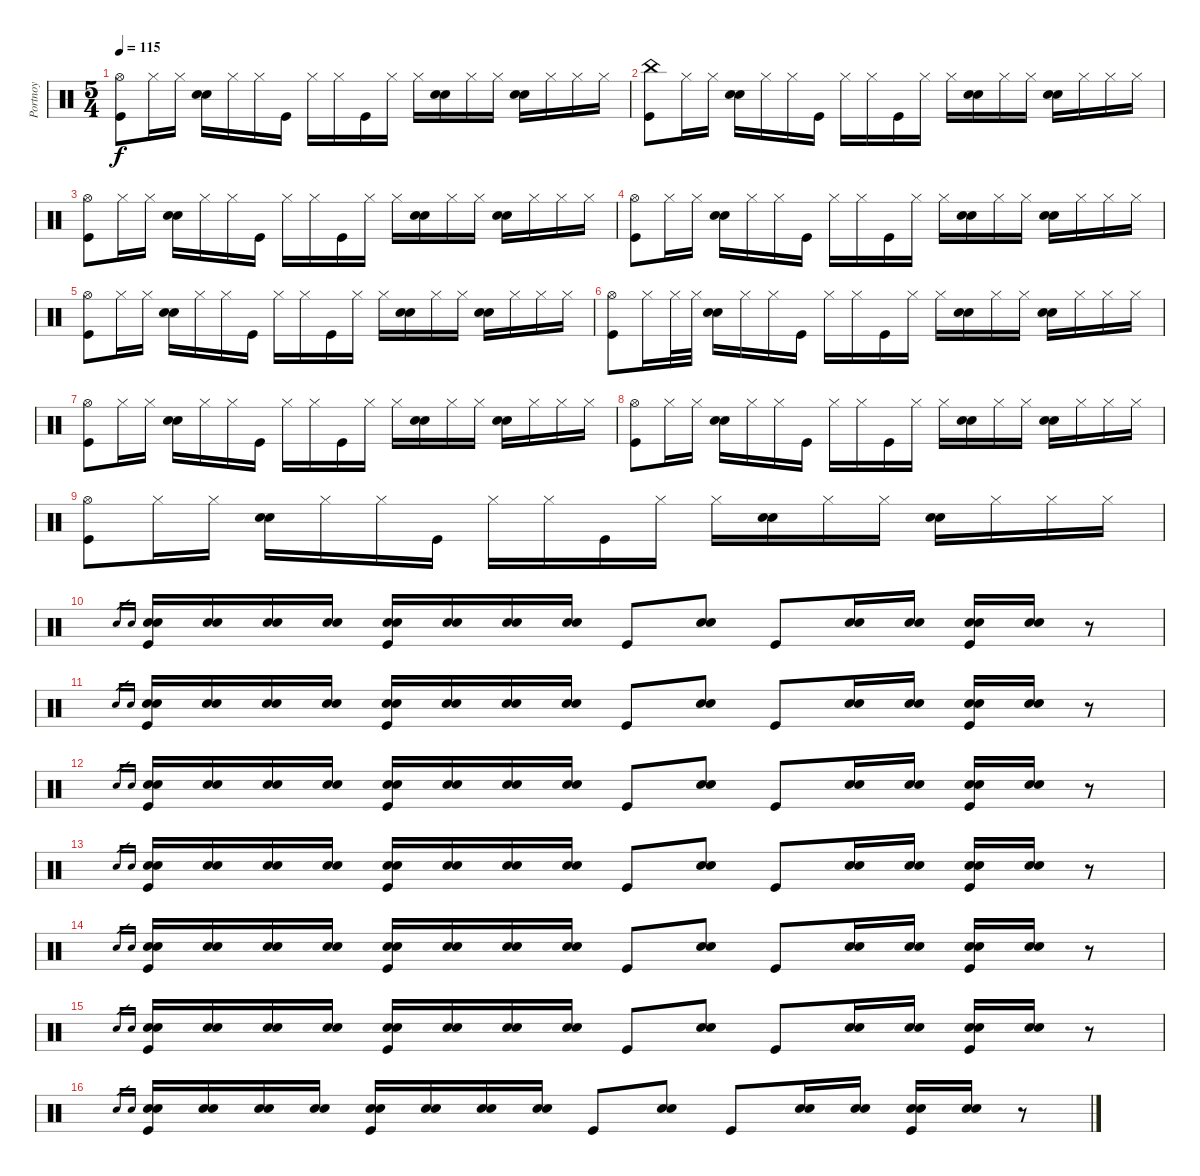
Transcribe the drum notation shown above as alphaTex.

\track ("Portnoy" "Portnoy") {instrument percussion}
\staff {score}
\articulation defaults
\ts (5 4)
\tempo 115
\clef neutral
\ks c
("Hi-Hat (open)" "Kick (hit)").8{dy f} "Hi-Hat (closed)".16 "Hi-Hat (closed)".16 ("Snare (hit) 2" "Electric Snare (hit)").16 "Hi-Hat (closed)".16 "Hi-Hat (closed)".16 "Kick (hit)".16 "Hi-Hat (closed)".16 "Hi-Hat (closed)".16 "Kick (hit)".16 "Hi-Hat (closed)".16 "Hi-Hat (closed)".16 ("Snare (hit) 2" "Electric Snare (hit)").16 "Hi-Hat (closed)".16 "Hi-Hat (closed)".16 ("Snare (hit) 2" "Electric Snare (hit)").16 "Hi-Hat (closed)".16 "Hi-Hat (closed)".16 "Hi-Hat (closed)".16 |
("China (hit)" "Kick (hit)").8 "Hi-Hat (closed)".16 "Hi-Hat (closed)".16 ("Snare (hit) 2" "Electric Snare (hit)").16 "Hi-Hat (closed)".16 "Hi-Hat (closed)".16 "Kick (hit)".16 "Hi-Hat (closed)".16 "Hi-Hat (closed)".16 "Kick (hit)".16 "Hi-Hat (closed)".16 "Hi-Hat (closed)".16 ("Snare (hit) 2" "Electric Snare (hit)").16 "Hi-Hat (closed)".16 "Hi-Hat (closed)".16 ("Snare (hit) 2" "Electric Snare (hit)").16 "Hi-Hat (closed)".16 "Hi-Hat (closed)".16 "Hi-Hat (closed)".16 |
("Hi-Hat (open)" "Kick (hit)").8 "Hi-Hat (closed)".16 "Hi-Hat (closed)".16 ("Snare (hit) 2" "Electric Snare (hit)").16 "Hi-Hat (closed)".16 "Hi-Hat (closed)".16 "Kick (hit)".16 "Hi-Hat (closed)".16 "Hi-Hat (closed)".16 "Kick (hit)".16 "Hi-Hat (closed)".16 "Hi-Hat (closed)".16 ("Snare (hit) 2" "Electric Snare (hit)").16 "Hi-Hat (closed)".16 "Hi-Hat (closed)".16 ("Snare (hit) 2" "Electric Snare (hit)").16 "Hi-Hat (closed)".16 "Hi-Hat (closed)".16 "Hi-Hat (closed)".16 |
("Hi-Hat (open)" "Kick (hit)").8 "Hi-Hat (closed)".16 "Hi-Hat (closed)".16 ("Snare (hit) 2" "Electric Snare (hit)").16 "Hi-Hat (closed)".16 "Hi-Hat (closed)".16 "Kick (hit)".16 "Hi-Hat (closed)".16 "Hi-Hat (closed)".16 "Kick (hit)".16 "Hi-Hat (closed)".16 "Hi-Hat (closed)".16 ("Snare (hit) 2" "Electric Snare (hit)").16 "Hi-Hat (closed)".16 "Hi-Hat (closed)".16 ("Snare (hit) 2" "Electric Snare (hit)").16 "Hi-Hat (closed)".16 "Hi-Hat (closed)".16 "Hi-Hat (closed)".16 |
("Hi-Hat (open)" "Kick (hit)").8 "Hi-Hat (closed)".16 "Hi-Hat (closed)".16 ("Snare (hit) 2" "Electric Snare (hit)").16 "Hi-Hat (closed)".16 "Hi-Hat (closed)".16 "Kick (hit)".16 "Hi-Hat (closed)".16 "Hi-Hat (closed)".16 "Kick (hit)".16 "Hi-Hat (closed)".16 "Hi-Hat (closed)".16 ("Snare (hit) 2" "Electric Snare (hit)").16 "Hi-Hat (closed)".16 "Hi-Hat (closed)".16 ("Snare (hit) 2" "Electric Snare (hit)").16 "Hi-Hat (closed)".16 "Hi-Hat (closed)".16 "Hi-Hat (closed)".16 |
("Hi-Hat (open)" "Kick (hit)").8 "Hi-Hat (closed)".16 "Hi-Hat (closed)".32 "Hi-Hat (closed)".32 ("Snare (hit) 2" "Electric Snare (hit)").16 "Hi-Hat (closed)".16 "Hi-Hat (closed)".16 "Kick (hit)".16 "Hi-Hat (closed)".16 "Hi-Hat (closed)".16 "Kick (hit)".16 "Hi-Hat (closed)".16 "Hi-Hat (closed)".16 ("Snare (hit) 2" "Electric Snare (hit)").16 "Hi-Hat (closed)".16 "Hi-Hat (closed)".16 ("Snare (hit) 2" "Electric Snare (hit)").16 "Hi-Hat (closed)".16 "Hi-Hat (closed)".16 "Hi-Hat (closed)".16 |
("Hi-Hat (open)" "Kick (hit)").8 "Hi-Hat (closed)".16 "Hi-Hat (closed)".16 ("Snare (hit) 2" "Electric Snare (hit)").16 "Hi-Hat (closed)".16 "Hi-Hat (closed)".16 "Kick (hit)".16 "Hi-Hat (closed)".16 "Hi-Hat (closed)".16 "Kick (hit)".16 "Hi-Hat (closed)".16 "Hi-Hat (closed)".16 ("Snare (hit) 2" "Electric Snare (hit)").16 "Hi-Hat (closed)".16 "Hi-Hat (closed)".16 ("Snare (hit) 2" "Electric Snare (hit)").16 "Hi-Hat (closed)".16 "Hi-Hat (closed)".16 "Hi-Hat (closed)".16 |
("Hi-Hat (open)" "Kick (hit)").8 "Hi-Hat (closed)".16 "Hi-Hat (closed)".16 ("Snare (hit) 2" "Electric Snare (hit)").16 "Hi-Hat (closed)".16 "Hi-Hat (closed)".16 "Kick (hit)".16 "Hi-Hat (closed)".16 "Hi-Hat (closed)".16 "Kick (hit)".16 "Hi-Hat (closed)".16 "Hi-Hat (closed)".16 ("Snare (hit) 2" "Electric Snare (hit)").16 "Hi-Hat (closed)".16 "Hi-Hat (closed)".16 ("Snare (hit) 2" "Electric Snare (hit)").16 "Hi-Hat (closed)".16 "Hi-Hat (closed)".16 "Hi-Hat (closed)".16 |
("Hi-Hat (open)" "Kick (hit)").8 "Hi-Hat (closed)".16 "Hi-Hat (closed)".16 ("Snare (hit) 2" "Electric Snare (hit)").16 "Hi-Hat (closed)".16 "Hi-Hat (closed)".16 "Kick (hit)".16 "Hi-Hat (closed)".16 "Hi-Hat (closed)".16 "Kick (hit)".16 "Hi-Hat (closed)".16 "Hi-Hat (closed)".16 ("Snare (hit) 2" "Electric Snare (hit)").16 "Hi-Hat (closed)".16 "Hi-Hat (closed)".16 ("Snare (hit) 2" "Electric Snare (hit)").16 "Hi-Hat (closed)".16 "Hi-Hat (closed)".16 "Hi-Hat (closed)".16 |
"Snare (hit) 2".16{gr} "Electric Snare (hit)".16{gr} ("Snare (hit) 2" "Electric Snare (hit)" "Kick (hit)").16 ("Snare (hit) 2" "Electric Snare (hit)").16 ("Snare (hit) 2" "Electric Snare (hit)").16 ("Snare (hit) 2" "Electric Snare (hit)").16 ("Snare (hit) 2" "Electric Snare (hit)" "Kick (hit)").16 ("Snare (hit) 2" "Electric Snare (hit)").16 ("Snare (hit) 2" "Electric Snare (hit)").16 ("Snare (hit) 2" "Electric Snare (hit)").16 "Kick (hit)".8 ("Snare (hit) 2" "Electric Snare (hit)").8 "Kick (hit)".8 ("Snare (hit) 2" "Electric Snare (hit)").16 ("Snare (hit) 2" "Electric Snare (hit)").16 ("Snare (hit) 2" "Electric Snare (hit)" "Kick (hit)").16 ("Snare (hit) 2" "Electric Snare (hit)").16 r.8 |
"Snare (hit) 2".16{gr} "Electric Snare (hit)".16{gr} ("Snare (hit) 2" "Electric Snare (hit)" "Kick (hit)").16 ("Snare (hit) 2" "Electric Snare (hit)").16 ("Snare (hit) 2" "Electric Snare (hit)").16 ("Snare (hit) 2" "Electric Snare (hit)").16 ("Snare (hit) 2" "Electric Snare (hit)" "Kick (hit)").16 ("Snare (hit) 2" "Electric Snare (hit)").16 ("Snare (hit) 2" "Electric Snare (hit)").16 ("Snare (hit) 2" "Electric Snare (hit)").16 "Kick (hit)".8 ("Snare (hit) 2" "Electric Snare (hit)").8 "Kick (hit)".8 ("Snare (hit) 2" "Electric Snare (hit)").16 ("Snare (hit) 2" "Electric Snare (hit)").16 ("Snare (hit) 2" "Electric Snare (hit)" "Kick (hit)").16 ("Snare (hit) 2" "Electric Snare (hit)").16 r.8 |
"Snare (hit) 2".16{gr} "Electric Snare (hit)".16{gr} ("Snare (hit) 2" "Electric Snare (hit)" "Kick (hit)").16 ("Snare (hit) 2" "Electric Snare (hit)").16 ("Snare (hit) 2" "Electric Snare (hit)").16 ("Snare (hit) 2" "Electric Snare (hit)").16 ("Snare (hit) 2" "Electric Snare (hit)" "Kick (hit)").16 ("Snare (hit) 2" "Electric Snare (hit)").16 ("Snare (hit) 2" "Electric Snare (hit)").16 ("Snare (hit) 2" "Electric Snare (hit)").16 "Kick (hit)".8 ("Snare (hit) 2" "Electric Snare (hit)").8 "Kick (hit)".8 ("Snare (hit) 2" "Electric Snare (hit)").16 ("Snare (hit) 2" "Electric Snare (hit)").16 ("Snare (hit) 2" "Electric Snare (hit)" "Kick (hit)").16 ("Snare (hit) 2" "Electric Snare (hit)").16 r.8 |
"Snare (hit) 2".16{gr} "Electric Snare (hit)".16{gr} ("Snare (hit) 2" "Electric Snare (hit)" "Kick (hit)").16 ("Snare (hit) 2" "Electric Snare (hit)").16 ("Snare (hit) 2" "Electric Snare (hit)").16 ("Snare (hit) 2" "Electric Snare (hit)").16 ("Snare (hit) 2" "Electric Snare (hit)" "Kick (hit)").16 ("Snare (hit) 2" "Electric Snare (hit)").16 ("Snare (hit) 2" "Electric Snare (hit)").16 ("Snare (hit) 2" "Electric Snare (hit)").16 "Kick (hit)".8 ("Snare (hit) 2" "Electric Snare (hit)").8 "Kick (hit)".8 ("Snare (hit) 2" "Electric Snare (hit)").16 ("Snare (hit) 2" "Electric Snare (hit)").16 ("Snare (hit) 2" "Electric Snare (hit)" "Kick (hit)").16 ("Snare (hit) 2" "Electric Snare (hit)").16 r.8 |
"Snare (hit) 2".16{gr} "Electric Snare (hit)".16{gr} ("Snare (hit) 2" "Electric Snare (hit)" "Kick (hit)").16 ("Snare (hit) 2" "Electric Snare (hit)").16 ("Snare (hit) 2" "Electric Snare (hit)").16 ("Snare (hit) 2" "Electric Snare (hit)").16 ("Snare (hit) 2" "Electric Snare (hit)" "Kick (hit)").16 ("Snare (hit) 2" "Electric Snare (hit)").16 ("Snare (hit) 2" "Electric Snare (hit)").16 ("Snare (hit) 2" "Electric Snare (hit)").16 "Kick (hit)".8 ("Snare (hit) 2" "Electric Snare (hit)").8 "Kick (hit)".8 ("Snare (hit) 2" "Electric Snare (hit)").16 ("Snare (hit) 2" "Electric Snare (hit)").16 ("Snare (hit) 2" "Electric Snare (hit)" "Kick (hit)").16 ("Snare (hit) 2" "Electric Snare (hit)").16 r.8 |
"Snare (hit) 2".16{gr} "Electric Snare (hit)".16{gr} ("Snare (hit) 2" "Electric Snare (hit)" "Kick (hit)").16 ("Snare (hit) 2" "Electric Snare (hit)").16 ("Snare (hit) 2" "Electric Snare (hit)").16 ("Snare (hit) 2" "Electric Snare (hit)").16 ("Snare (hit) 2" "Electric Snare (hit)" "Kick (hit)").16 ("Snare (hit) 2" "Electric Snare (hit)").16 ("Snare (hit) 2" "Electric Snare (hit)").16 ("Snare (hit) 2" "Electric Snare (hit)").16 "Kick (hit)".8 ("Snare (hit) 2" "Electric Snare (hit)").8 "Kick (hit)".8 ("Snare (hit) 2" "Electric Snare (hit)").16 ("Snare (hit) 2" "Electric Snare (hit)").16 ("Snare (hit) 2" "Electric Snare (hit)" "Kick (hit)").16 ("Snare (hit) 2" "Electric Snare (hit)").16 r.8 |
"Snare (hit) 2".16{gr} "Electric Snare (hit)".16{gr} ("Snare (hit) 2" "Electric Snare (hit)" "Kick (hit)").16 ("Snare (hit) 2" "Electric Snare (hit)").16 ("Snare (hit) 2" "Electric Snare (hit)").16 ("Snare (hit) 2" "Electric Snare (hit)").16 ("Snare (hit) 2" "Electric Snare (hit)" "Kick (hit)").16 ("Snare (hit) 2" "Electric Snare (hit)").16 ("Snare (hit) 2" "Electric Snare (hit)").16 ("Snare (hit) 2" "Electric Snare (hit)").16 "Kick (hit)".8 ("Snare (hit) 2" "Electric Snare (hit)").8 "Kick (hit)".8 ("Snare (hit) 2" "Electric Snare (hit)").16 ("Snare (hit) 2" "Electric Snare (hit)").16 ("Snare (hit) 2" "Electric Snare (hit)" "Kick (hit)").16 ("Snare (hit) 2" "Electric Snare (hit)").16 r.8
